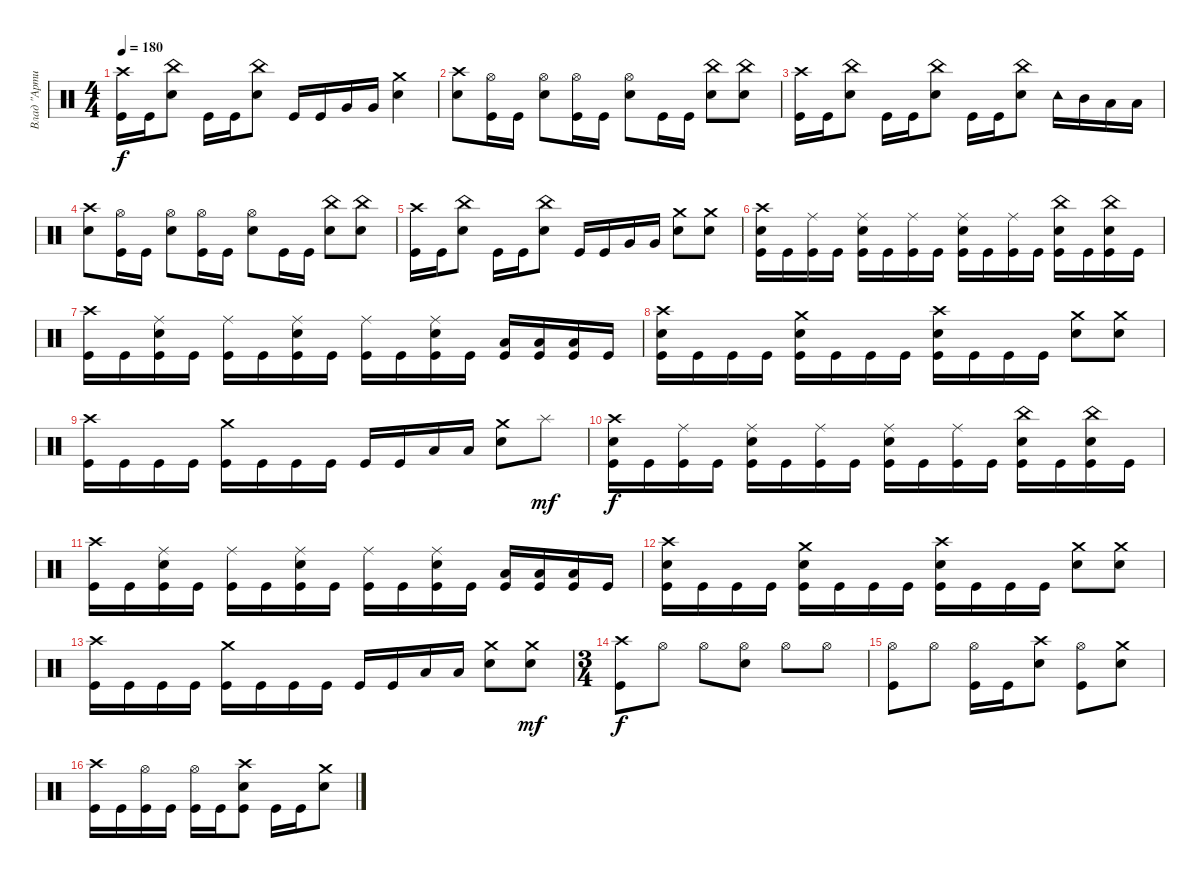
\track ("Влад \"Артист\"" "Влад \"Арти") {instrument percussion}
\staff {score}
\articulation defaults
\ts (4 4)
\tempo 180
\clef neutral
\ks c
("Crash high (hit)" "Kick (hit)").16{dy f} "Kick (hit)".16 ("Snare (hit) 2" "China (hit)").8 "Kick (hit)".16 "Kick (hit)".16 ("Snare (hit) 2" "China (hit)").8 "Kick (hit)".16 "Kick (hit)".16 "Very Low Tom (hit)".16 "Very Low Tom (hit)".16 ("Snare (hit) 2" "Crash medium (hit)").4 |
("Snare (hit) 2" "Crash high (hit)").8 ("Kick (hit)" "Hi-Hat (open)").16 "Kick (hit)".16 ("Hi-Hat (open)" "Snare (hit) 2").8 ("Kick (hit)" "Hi-Hat (open)").16 "Kick (hit)".16 ("Hi-Hat (open)" "Snare (hit) 2").8 "Kick (hit)".16 "Kick (hit)".16 ("China (hit)" "Snare (hit) 2").8 ("Snare (hit) 2" "China (hit)").8 |
("Crash high (hit)" "Kick (hit)").16 "Kick (hit)".16 ("Snare (hit) 2" "China (hit)").8 "Kick (hit)".16 "Kick (hit)".16 ("Snare (hit) 2" "China (hit)").8 "Kick (hit)".16 "Kick (hit)".16 ("Snare (hit) 2" "China (hit)").8 "Tambourine (hit)".16 "Mid Tom (hit)".16 "Low Tom (hit)".16 "Low Tom (hit)".16 |
("Snare (hit) 2" "Crash high (hit)").8 ("Kick (hit)" "Hi-Hat (open)").16 "Kick (hit)".16 ("Hi-Hat (open)" "Snare (hit) 2").8 ("Kick (hit)" "Hi-Hat (open)").16 "Kick (hit)".16 ("Hi-Hat (open)" "Snare (hit) 2").8 "Kick (hit)".16 "Kick (hit)".16 ("China (hit)" "Snare (hit) 2").8 ("Snare (hit) 2" "China (hit)").8 |
("Crash high (hit)" "Kick (hit)").16 "Kick (hit)".16 ("Snare (hit) 2" "China (hit)").8 "Kick (hit)".16 "Kick (hit)".16 ("Snare (hit) 2" "China (hit)").8 "Kick (hit)".16 "Kick (hit)".16 "Very Low Tom (hit)".16 "Very Low Tom (hit)".16 ("Snare (hit) 2" "Crash medium (hit)").8 ("Snare (hit) 2" "Crash medium (hit)").8 |
("Snare (hit) 2" "Crash high (hit)" "Kick (hit)").16 "Kick (hit)".16 ("Ride (middle)" "Kick (hit)").16 "Kick (hit)".16 ("Kick (hit)" "Snare (hit) 2" "Ride (middle)").16 "Kick (hit)".16 ("Ride (middle)" "Kick (hit)").16 "Kick (hit)".16 ("Snare (hit) 2" "Kick (hit)" "Ride (middle)").16 "Kick (hit)".16 ("Ride (middle)" "Kick (hit)").16 "Kick (hit)".16 ("Snare (hit) 2" "Kick (hit)" "China (hit)").16 "Kick (hit)".16 ("Snare (hit) 2" "Kick (hit)" "China (hit)").16 "Kick (hit)".16 |
("Kick (hit)" "Crash high (hit)").16 "Kick (hit)".16 ("Ride (middle)" "Kick (hit)" "Snare (hit) 2").16 "Kick (hit)".16 ("Ride (middle)" "Kick (hit)").16 "Kick (hit)".16 ("Kick (hit)" "Ride (middle)" "Snare (hit) 2").16 "Kick (hit)".16 ("Ride (middle)" "Kick (hit)").16 "Kick (hit)".16 ("Snare (hit) 2" "Kick (hit)" "Ride (middle)").16 "Kick (hit)".16 ("Kick (hit)" "Low Tom (hit)").16 ("Kick (hit)" "Low Tom (hit)").16 ("Kick (hit)" "Low Floor Tom (hit)").16 "Kick (hit)".16 |
("Snare (hit) 2" "Kick (hit)" "Crash high (hit)").16 "Kick (hit)".16 "Kick (hit)".16 "Kick (hit)".16 ("Snare (hit) 2" "Crash medium (hit)" "Kick (hit)").16 "Kick (hit)".16 "Kick (hit)".16 "Kick (hit)".16 ("Snare (hit) 2" "Crash high (hit)" "Kick (hit)").16 "Kick (hit)".16 "Kick (hit)".16 "Kick (hit)".16 ("Crash medium (hit)" "Snare (hit) 2").8 ("Crash medium (hit)" "Snare (hit) 2").8 |
("Kick (hit)" "Crash high (hit)").16 "Kick (hit)".16 "Kick (hit)".16 "Kick (hit)".16 ("Crash medium (hit)" "Kick (hit)").16 "Kick (hit)".16 "Kick (hit)".16 "Kick (hit)".16 "Kick (hit)".16 "Kick (hit)".16 "Low Tom (hit)".16 "Low Tom (hit)".16 ("Crash medium (hit)" "Snare (hit) 2").8 "Splash (hit)".8{dy mf} |
("Snare (hit) 2" "Crash high (hit)" "Kick (hit)").16{dy f} "Kick (hit)".16 ("Ride (middle)" "Kick (hit)").16 "Kick (hit)".16 ("Kick (hit)" "Snare (hit) 2" "Ride (middle)").16 "Kick (hit)".16 ("Ride (middle)" "Kick (hit)").16 "Kick (hit)".16 ("Snare (hit) 2" "Kick (hit)" "Ride (middle)").16 "Kick (hit)".16 ("Ride (middle)" "Kick (hit)").16 "Kick (hit)".16 ("Snare (hit) 2" "Kick (hit)" "China (hit)").16 "Kick (hit)".16 ("Snare (hit) 2" "Kick (hit)" "China (hit)").16 "Kick (hit)".16 |
("Kick (hit)" "Crash high (hit)").16 "Kick (hit)".16 ("Ride (middle)" "Kick (hit)" "Snare (hit) 2").16 "Kick (hit)".16 ("Ride (middle)" "Kick (hit)").16 "Kick (hit)".16 ("Kick (hit)" "Ride (middle)" "Snare (hit) 2").16 "Kick (hit)".16 ("Ride (middle)" "Kick (hit)").16 "Kick (hit)".16 ("Snare (hit) 2" "Kick (hit)" "Ride (middle)").16 "Kick (hit)".16 ("Kick (hit)" "Low Tom (hit)").16 ("Kick (hit)" "Low Tom (hit)").16 ("Kick (hit)" "Low Floor Tom (hit)").16 "Kick (hit)".16 |
("Snare (hit) 2" "Kick (hit)" "Crash high (hit)").16 "Kick (hit)".16 "Kick (hit)".16 "Kick (hit)".16 ("Snare (hit) 2" "Crash medium (hit)" "Kick (hit)").16 "Kick (hit)".16 "Kick (hit)".16 "Kick (hit)".16 ("Snare (hit) 2" "Crash high (hit)" "Kick (hit)").16 "Kick (hit)".16 "Kick (hit)".16 "Kick (hit)".16 ("Crash medium (hit)" "Snare (hit) 2").8 ("Crash medium (hit)" "Snare (hit) 2").8 |
("Kick (hit)" "Crash high (hit)").16 "Kick (hit)".16 "Kick (hit)".16 "Kick (hit)".16 ("Crash medium (hit)" "Kick (hit)").16 "Kick (hit)".16 "Kick (hit)".16 "Kick (hit)".16 "Kick (hit)".16 "Kick (hit)".16 "Low Tom (hit)".16 "Low Tom (hit)".16 ("Crash medium (hit)" "Snare (hit) 2").8 ("Snare (hit) 2" "Crash medium (hit)").8{dy mf} |
\ts (3 4)
("Crash high (hit)" "Kick (hit)").8{dy f} "Hi-Hat (open)".8 "Hi-Hat (open)".8 ("Hi-Hat (open)" "Snare (hit) 2").8 "Hi-Hat (open)".8 "Hi-Hat (open)".8 |
("Kick (hit)" "Hi-Hat (open)").8 "Hi-Hat (open)".8 ("Kick (hit)" "Hi-Hat (open)").16 "Kick (hit)".16 ("Crash high (hit)" "Snare (hit) 2").8 ("Kick (hit)" "Hi-Hat (open)").8 ("Crash medium (hit)" "Snare (hit) 2").8 |
("Kick (hit)" "Crash high (hit)").16 "Kick (hit)".16 ("Hi-Hat (open)" "Kick (hit)").16 "Kick (hit)".16 ("Kick (hit)" "Hi-Hat (open)").16 "Kick (hit)".16 ("Snare (hit) 2" "Crash high (hit)" "Kick (hit)").8 "Kick (hit)".16 "Kick (hit)".16 ("Snare (hit) 2" "Crash medium (hit)").8
